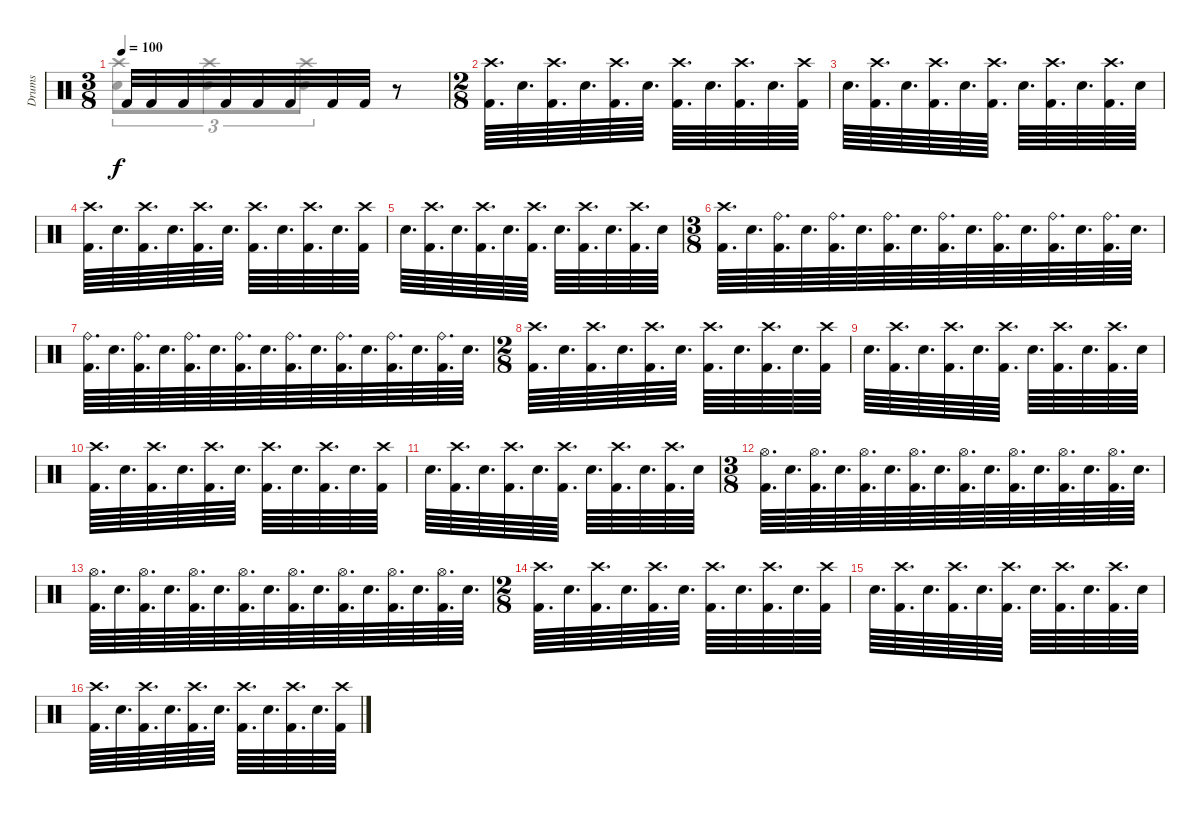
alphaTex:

\track ("Drums" "Drums") {instrument percussion}
\staff {score}
\articulation defaults
\voice
\ts (3 8)
\tempo 100
\clef neutral
\ks c "Kick (hit) 2".32{dy f} "Kick (hit) 2".32 "Kick (hit) 2".32 "Kick (hit) 2".32 "Kick (hit) 2".32 "Kick (hit) 2".32 "Kick (hit) 2".32 "Kick (hit) 2".32
r.8 |
\ts (2 8)
("Crash high (hit)" "Kick (hit) 2").64{d} "Electric Snare (hit)".64{d} ("Crash high (hit)" "Kick (hit) 2").64{d} "Electric Snare (hit)".64{d} ("Crash high (hit)" "Kick (hit) 2").64{d} "Electric Snare (hit)".64{d} ("Crash high (hit)" "Kick (hit) 2").64{d} "Electric Snare (hit)".64{d} ("Crash high (hit)" "Kick (hit) 2").64{d} "Electric Snare (hit)".64{d} ("Crash high (hit)" "Kick (hit) 2").64 |
"Electric Snare (hit)".64{d} ("Crash high (hit)" "Kick (hit) 2").64{d} "Electric Snare (hit)".64{d} ("Crash high (hit)" "Kick (hit) 2").64{d} "Electric Snare (hit)".64{d} ("Crash high (hit)" "Kick (hit) 2").64{d} "Electric Snare (hit)".64{d} ("Crash high (hit)" "Kick (hit) 2").64{d} "Electric Snare (hit)".64{d} ("Crash high (hit)" "Kick (hit) 2").64{d} "Electric Snare (hit)".64 |
("Crash high (hit)" "Kick (hit) 2").64{d} "Electric Snare (hit)".64{d} ("Crash high (hit)" "Kick (hit) 2").64{d} "Electric Snare (hit)".64{d} ("Crash high (hit)" "Kick (hit) 2").64{d} "Electric Snare (hit)".64{d} ("Crash high (hit)" "Kick (hit) 2").64{d} "Electric Snare (hit)".64{d} ("Crash high (hit)" "Kick (hit) 2").64{d} "Electric Snare (hit)".64{d} ("Crash high (hit)" "Kick (hit) 2").64 |
"Electric Snare (hit)".64{d} ("Crash high (hit)" "Kick (hit) 2").64{d} "Electric Snare (hit)".64{d} ("Crash high (hit)" "Kick (hit) 2").64{d} "Electric Snare (hit)".64{d} ("Crash high (hit)" "Kick (hit) 2").64{d} "Electric Snare (hit)".64{d} ("Crash high (hit)" "Kick (hit) 2").64{d} "Electric Snare (hit)".64{d} ("Crash high (hit)" "Kick (hit) 2").64{d} "Electric Snare (hit)".64 |
\ts (3 8)
("Crash high (hit)" "Kick (hit) 2").64{d} "Electric Snare (hit)".64{d} ("Ride (bell)" "Kick (hit) 2").64{d} "Electric Snare (hit)".64{d} ("Ride (bell)" "Kick (hit) 2").64{d} "Electric Snare (hit)".64{d} ("Ride (bell)" "Kick (hit) 2").64{d} "Electric Snare (hit)".64{d} ("Ride (bell)" "Kick (hit) 2").64{d} "Electric Snare (hit)".64{d} ("Ride (bell)" "Kick (hit) 2").64{d} "Electric Snare (hit)".64{d} ("Ride (bell)" "Kick (hit) 2").64{d} "Electric Snare (hit)".64{d} ("Ride (bell)" "Kick (hit) 2").64{d} "Electric Snare (hit)".64{d} |
("Ride (bell)" "Kick (hit) 2").64{d} "Electric Snare (hit)".64{d} ("Ride (bell)" "Kick (hit) 2").64{d} "Electric Snare (hit)".64{d} ("Ride (bell)" "Kick (hit) 2").64{d} "Electric Snare (hit)".64{d} ("Ride (bell)" "Kick (hit) 2").64{d} "Electric Snare (hit)".64{d} ("Ride (bell)" "Kick (hit) 2").64{d} "Electric Snare (hit)".64{d} ("Ride (bell)" "Kick (hit) 2").64{d} "Electric Snare (hit)".64{d} ("Ride (bell)" "Kick (hit) 2").64{d} "Electric Snare (hit)".64{d} ("Ride (bell)" "Kick (hit) 2").64{d} "Electric Snare (hit)".64{d} |
\ts (2 8)
("Crash high (hit)" "Kick (hit) 2").64{d} "Electric Snare (hit)".64{d} ("Crash high (hit)" "Kick (hit) 2").64{d} "Electric Snare (hit)".64{d} ("Crash high (hit)" "Kick (hit) 2").64{d} "Electric Snare (hit)".64{d} ("Crash high (hit)" "Kick (hit) 2").64{d} "Electric Snare (hit)".64{d} ("Crash high (hit)" "Kick (hit) 2").64{d} "Electric Snare (hit)".64{d} ("Crash high (hit)" "Kick (hit) 2").64 |
"Electric Snare (hit)".64{d} ("Crash high (hit)" "Kick (hit) 2").64{d} "Electric Snare (hit)".64{d} ("Crash high (hit)" "Kick (hit) 2").64{d} "Electric Snare (hit)".64{d} ("Crash high (hit)" "Kick (hit) 2").64{d} "Electric Snare (hit)".64{d} ("Crash high (hit)" "Kick (hit) 2").64{d} "Electric Snare (hit)".64{d} ("Crash high (hit)" "Kick (hit) 2").64{d} "Electric Snare (hit)".64 |
("Crash high (hit)" "Kick (hit) 2").64{d} "Electric Snare (hit)".64{d} ("Crash high (hit)" "Kick (hit) 2").64{d} "Electric Snare (hit)".64{d} ("Crash high (hit)" "Kick (hit) 2").64{d} "Electric Snare (hit)".64{d} ("Crash high (hit)" "Kick (hit) 2").64{d} "Electric Snare (hit)".64{d} ("Crash high (hit)" "Kick (hit) 2").64{d} "Electric Snare (hit)".64{d} ("Crash high (hit)" "Kick (hit) 2").64 |
"Electric Snare (hit)".64{d} ("Crash high (hit)" "Kick (hit) 2").64{d} "Electric Snare (hit)".64{d} ("Crash high (hit)" "Kick (hit) 2").64{d} "Electric Snare (hit)".64{d} ("Crash high (hit)" "Kick (hit) 2").64{d} "Electric Snare (hit)".64{d} ("Crash high (hit)" "Kick (hit) 2").64{d} "Electric Snare (hit)".64{d} ("Crash high (hit)" "Kick (hit) 2").64{d} "Electric Snare (hit)".64 |
\ts (3 8)
("Hi-Hat (open)" "Kick (hit) 2").64{d} "Electric Snare (hit)".64{d} ("Hi-Hat (open)" "Kick (hit) 2").64{d} "Electric Snare (hit)".64{d} ("Hi-Hat (open)" "Kick (hit) 2").64{d} "Electric Snare (hit)".64{d} ("Hi-Hat (open)" "Kick (hit) 2").64{d} "Electric Snare (hit)".64{d} ("Hi-Hat (open)" "Kick (hit) 2").64{d} "Electric Snare (hit)".64{d} ("Hi-Hat (open)" "Kick (hit) 2").64{d} "Electric Snare (hit)".64{d} ("Hi-Hat (open)" "Kick (hit) 2").64{d} "Electric Snare (hit)".64{d} ("Hi-Hat (open)" "Kick (hit) 2").64{d} "Electric Snare (hit)".64{d} |
("Hi-Hat (open)" "Kick (hit) 2").64{d} "Electric Snare (hit)".64{d} ("Hi-Hat (open)" "Kick (hit) 2").64{d} "Electric Snare (hit)".64{d} ("Hi-Hat (open)" "Kick (hit) 2").64{d} "Electric Snare (hit)".64{d} ("Hi-Hat (open)" "Kick (hit) 2").64{d} "Electric Snare (hit)".64{d} ("Hi-Hat (open)" "Kick (hit) 2").64{d} "Electric Snare (hit)".64{d} ("Hi-Hat (open)" "Kick (hit) 2").64{d} "Electric Snare (hit)".64{d} ("Hi-Hat (open)" "Kick (hit) 2").64{d} "Electric Snare (hit)".64{d} ("Hi-Hat (open)" "Kick (hit) 2").64{d} "Electric Snare (hit)".64{d} |
\ts (2 8)
("Crash high (hit)" "Kick (hit) 2").64{d} "Electric Snare (hit)".64{d} ("Crash high (hit)" "Kick (hit) 2").64{d} "Electric Snare (hit)".64{d} ("Crash high (hit)" "Kick (hit) 2").64{d} "Electric Snare (hit)".64{d} ("Crash high (hit)" "Kick (hit) 2").64{d} "Electric Snare (hit)".64{d} ("Crash high (hit)" "Kick (hit) 2").64{d} "Electric Snare (hit)".64{d} ("Crash high (hit)" "Kick (hit) 2").64 |
"Electric Snare (hit)".64{d} ("Crash high (hit)" "Kick (hit) 2").64{d} "Electric Snare (hit)".64{d} ("Crash high (hit)" "Kick (hit) 2").64{d} "Electric Snare (hit)".64{d} ("Crash high (hit)" "Kick (hit) 2").64{d} "Electric Snare (hit)".64{d} ("Crash high (hit)" "Kick (hit) 2").64{d} "Electric Snare (hit)".64{d} ("Crash high (hit)" "Kick (hit) 2").64{d} "Electric Snare (hit)".64 |
("Crash high (hit)" "Kick (hit) 2").64{d} "Electric Snare (hit)".64{d} ("Crash high (hit)" "Kick (hit) 2").64{d} "Electric Snare (hit)".64{d} ("Crash high (hit)" "Kick (hit) 2").64{d} "Electric Snare (hit)".64{d} ("Crash high (hit)" "Kick (hit) 2").64{d} "Electric Snare (hit)".64{d} ("Crash high (hit)" "Kick (hit) 2").64{d} "Electric Snare (hit)".64{d} ("Crash high (hit)" "Kick (hit) 2").64
\voice
\clef neutral
\ottava regular
\simile none
\ks c
("Crash high (hit)" "Electric Snare (hit)").8{tu (3 2) dy f} ("Crash high (hit)" "Electric Snare (hit)").8{tu (3 2)} ("Crash high (hit)" "Electric Snare (hit)").8{tu (3 2)} r.8 |
|
|
|
|
|
|
|
|
|
|
|
|
|
|
